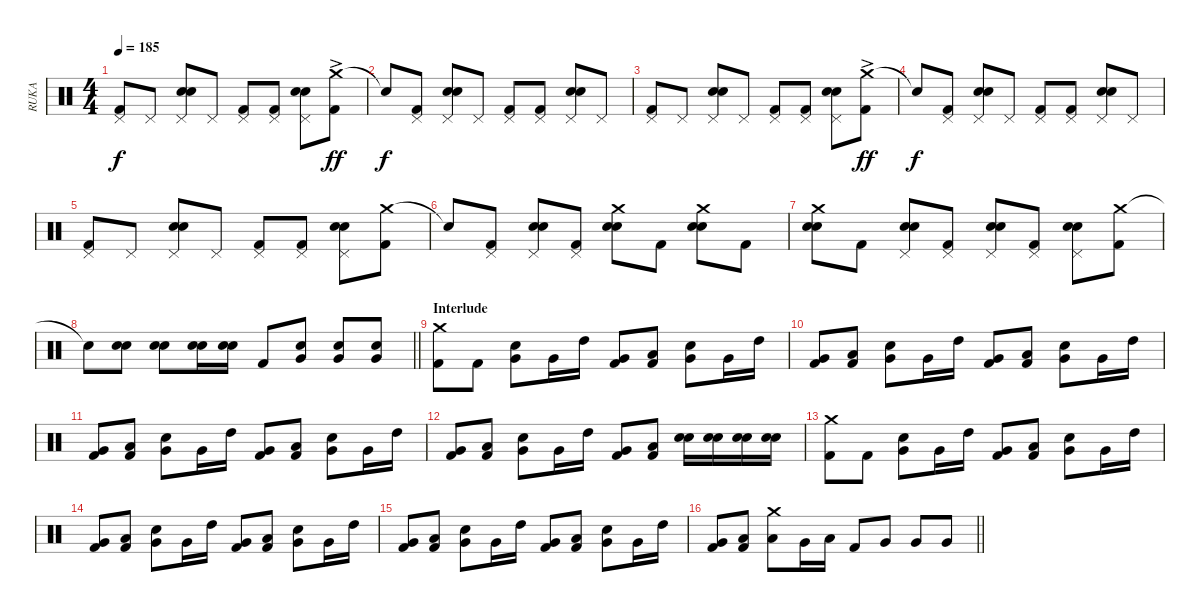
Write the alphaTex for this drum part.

\track ("RUKA" "RUKA") {instrument percussion}
\staff {score}
\articulation defaults
\ts (4 4)
\tempo 185
\clef neutral
\ks c
("Pedal Hi-Hat (hit)" "Kick (hit) 2").8{dy f} "Pedal Hi-Hat (hit)".8 ("Pedal Hi-Hat (hit)" "Snare (hit) 2" "Electric Snare (hit)").8 "Pedal Hi-Hat (hit)".8 ("Pedal Hi-Hat (hit)" "Kick (hit) 2").8 ("Pedal Hi-Hat (hit)" "Kick (hit) 2").8 ("Pedal Hi-Hat (hit)" "Snare (hit) 2" "Electric Snare (hit)").8 ("Crash medium (hit)"{ac} "Kick (hit) 2").8{dy ff} |
"Snare (hit)"{t}.8{dy f} ("Pedal Hi-Hat (hit)" "Kick (hit) 2").8 ("Pedal Hi-Hat (hit)" "Snare (hit) 2" "Electric Snare (hit)").8 "Pedal Hi-Hat (hit)".8 ("Pedal Hi-Hat (hit)" "Kick (hit) 2").8 ("Pedal Hi-Hat (hit)" "Kick (hit) 2").8 ("Pedal Hi-Hat (hit)" "Snare (hit) 2" "Electric Snare (hit)").8 "Pedal Hi-Hat (hit)".8 |
("Pedal Hi-Hat (hit)" "Kick (hit) 2").8 "Pedal Hi-Hat (hit)".8 ("Pedal Hi-Hat (hit)" "Snare (hit) 2" "Electric Snare (hit)").8 "Pedal Hi-Hat (hit)".8 ("Pedal Hi-Hat (hit)" "Kick (hit) 2").8 ("Pedal Hi-Hat (hit)" "Kick (hit) 2").8 ("Pedal Hi-Hat (hit)" "Snare (hit) 2" "Electric Snare (hit)").8 ("Crash medium (hit)"{ac} "Kick (hit) 2").8{dy ff} |
"Snare (hit)"{t}.8{dy f} ("Pedal Hi-Hat (hit)" "Kick (hit) 2").8 ("Pedal Hi-Hat (hit)" "Snare (hit) 2" "Electric Snare (hit)").8 "Pedal Hi-Hat (hit)".8 ("Pedal Hi-Hat (hit)" "Kick (hit) 2").8 ("Pedal Hi-Hat (hit)" "Kick (hit) 2").8 ("Pedal Hi-Hat (hit)" "Snare (hit) 2" "Electric Snare (hit)").8 "Pedal Hi-Hat (hit)".8 |
("Pedal Hi-Hat (hit)" "Kick (hit) 2").8 "Pedal Hi-Hat (hit)".8 ("Pedal Hi-Hat (hit)" "Snare (hit) 2" "Electric Snare (hit)").8 "Pedal Hi-Hat (hit)".8 ("Pedal Hi-Hat (hit)" "Kick (hit) 2").8 ("Pedal Hi-Hat (hit)" "Kick (hit) 2").8 ("Pedal Hi-Hat (hit)" "Snare (hit) 2" "Electric Snare (hit)").8 ("Crash medium (hit)" "Kick (hit) 2").8 |
"Snare (hit)"{t}.8 ("Pedal Hi-Hat (hit)" "Kick (hit) 2").8 ("Pedal Hi-Hat (hit)" "Snare (hit) 2" "Electric Snare (hit)").8 ("Pedal Hi-Hat (hit)" "Kick (hit) 2").8 ("Crash medium (hit)" "Snare (hit) 2" "Electric Snare (hit)").8 "Kick (hit) 2".8 ("Crash medium (hit)" "Snare (hit) 2" "Electric Snare (hit)").8 "Kick (hit) 2".8 |
("Crash medium (hit)" "Snare (hit) 2" "Electric Snare (hit)").8 "Kick (hit) 2".8 ("Pedal Hi-Hat (hit)" "Snare (hit) 2" "Electric Snare (hit)").8 ("Pedal Hi-Hat (hit)" "Kick (hit) 2").8 ("Pedal Hi-Hat (hit)" "Snare (hit) 2" "Electric Snare (hit)").8 ("Pedal Hi-Hat (hit)" "Kick (hit) 2").8 ("Pedal Hi-Hat (hit)" "Snare (hit) 2" "Electric Snare (hit)").8 ("Crash medium (hit)" "Kick (hit) 2").8 |
\barLineRight lightlight "Snare (hit)"{t}.8
("Snare (hit) 2" "Electric Snare (hit)").8 ("Snare (hit) 2" "Electric Snare (hit)").8 ("Snare (hit) 2" "Electric Snare (hit)").16 ("Snare (hit) 2" "Electric Snare (hit)").16 "Kick (hit) 2".8 ("Snare (hit) 2" "Very Low Tom (hit)").8 ("Snare (hit) 2" "Very Low Tom (hit)").8 ("Snare (hit) 2" "Very Low Tom (hit)").8 |
\section ("" "Interlude")
("Crash medium (hit)" "Kick (hit) 2").8 "Kick (hit) 2".8 ("Snare (hit) 2" "Very Low Tom (hit)").8 "Very Low Tom (hit)".16 "High Tom (hit)".16 ("Very Low Tom (hit)" "Kick (hit) 2").8 ("Low Floor Tom (hit)" "Kick (hit) 2").8 ("Snare (hit) 2" "Very Low Tom (hit)").8 "Very Low Tom (hit)".16 "High Tom (hit)".16 |
("Very Low Tom (hit)" "Kick (hit) 2").8 ("Low Floor Tom (hit)" "Kick (hit) 2").8 ("Snare (hit) 2" "Very Low Tom (hit)").8 "Very Low Tom (hit)".16 "High Tom (hit)".16 ("Very Low Tom (hit)" "Kick (hit) 2").8 ("Low Floor Tom (hit)" "Kick (hit) 2").8 ("Snare (hit) 2" "Very Low Tom (hit)").8 "Very Low Tom (hit)".16 "High Tom (hit)".16 |
("Very Low Tom (hit)" "Kick (hit) 2").8 ("Low Floor Tom (hit)" "Kick (hit) 2").8 ("Snare (hit) 2" "Very Low Tom (hit)").8 "Very Low Tom (hit)".16 "High Tom (hit)".16 ("Very Low Tom (hit)" "Kick (hit) 2").8 ("Low Floor Tom (hit)" "Kick (hit) 2").8 ("Snare (hit) 2" "Very Low Tom (hit)").8 "Very Low Tom (hit)".16 "High Tom (hit)".16 |
("Very Low Tom (hit)" "Kick (hit) 2").8 ("Low Floor Tom (hit)" "Kick (hit) 2").8 ("Snare (hit) 2" "Very Low Tom (hit)").8 "Very Low Tom (hit)".16 "High Tom (hit)".16 ("Very Low Tom (hit)" "Kick (hit) 2").8 ("Low Floor Tom (hit)" "Kick (hit) 2").8 ("Snare (hit) 2" "Electric Snare (hit)").16 ("Snare (hit) 2" "Electric Snare (hit)").16 ("Snare (hit) 2" "Electric Snare (hit)").16 ("Snare (hit) 2" "Electric Snare (hit)").16 |
("Crash medium (hit)" "Kick (hit) 2").8 "Kick (hit) 2".8 ("Snare (hit) 2" "Very Low Tom (hit)").8 "Very Low Tom (hit)".16 "High Tom (hit)".16 ("Very Low Tom (hit)" "Kick (hit) 2").8 ("Low Floor Tom (hit)" "Kick (hit) 2").8 ("Snare (hit) 2" "Very Low Tom (hit)").8 "Very Low Tom (hit)".16 "High Tom (hit)".16 |
("Very Low Tom (hit)" "Kick (hit) 2").8 ("Low Floor Tom (hit)" "Kick (hit) 2").8 ("Snare (hit) 2" "Very Low Tom (hit)").8 "Very Low Tom (hit)".16 "High Tom (hit)".16 ("Very Low Tom (hit)" "Kick (hit) 2").8 ("Low Floor Tom (hit)" "Kick (hit) 2").8 ("Snare (hit) 2" "Very Low Tom (hit)").8 "Very Low Tom (hit)".16 "High Tom (hit)".16 |
("Very Low Tom (hit)" "Kick (hit) 2").8 ("Low Floor Tom (hit)" "Kick (hit) 2").8 ("Snare (hit) 2" "Very Low Tom (hit)").8 "Very Low Tom (hit)".16 "High Tom (hit)".16 ("Very Low Tom (hit)" "Kick (hit) 2").8 ("Low Floor Tom (hit)" "Kick (hit) 2").8 ("Snare (hit) 2" "Very Low Tom (hit)").8 "Very Low Tom (hit)".16 "High Tom (hit)".16 |
\barLineRight lightlight
("Very Low Tom (hit)" "Kick (hit) 2").8 ("Low Floor Tom (hit)" "Kick (hit) 2").8 ("Crash medium (hit)" "Low Tom (hit)").8 "Very Low Tom (hit)".16 "Low Floor Tom (hit)".16 "Kick (hit) 2".8 "Very Low Tom (hit)".8 "Very Low Tom (hit)".8 "Very Low Tom (hit)".8
